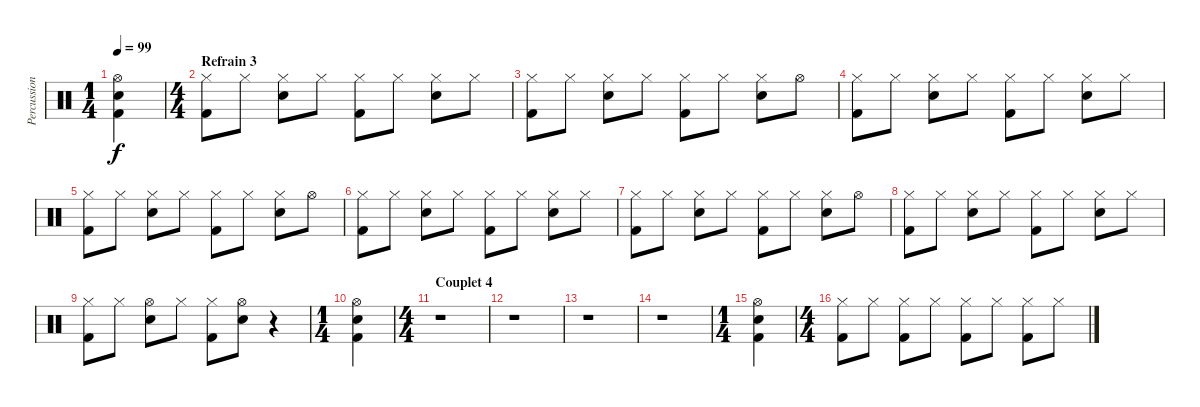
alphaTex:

\track ("Percussions" "Percussion") {instrument percussion}
\staff {score}
\articulation defaults
\ts (1 4)
\tempo 99
\clef neutral
\ks c
("Hi-Hat (open)" "Electric Snare (hit)" "Kick (hit) 2").4{dy f} |
\ts (4 4)
\section ("" "Refrain 3")
("Hi-Hat (closed)" "Kick (hit) 2").8 "Hi-Hat (closed)".8 ("Hi-Hat (closed)" "Electric Snare (hit)").8 "Hi-Hat (closed)".8 ("Hi-Hat (closed)" "Kick (hit) 2").8 "Hi-Hat (closed)".8 ("Hi-Hat (closed)" "Electric Snare (hit)").8 "Hi-Hat (closed)".8 |
("Hi-Hat (closed)" "Kick (hit) 2").8 "Hi-Hat (closed)".8 ("Hi-Hat (closed)" "Electric Snare (hit)").8 "Hi-Hat (closed)".8 ("Hi-Hat (closed)" "Kick (hit) 2").8 "Hi-Hat (closed)".8 ("Hi-Hat (closed)" "Electric Snare (hit)").8 "Hi-Hat (open)".8 |
("Hi-Hat (closed)" "Kick (hit) 2").8 "Hi-Hat (closed)".8 ("Hi-Hat (closed)" "Electric Snare (hit)").8 "Hi-Hat (closed)".8 ("Hi-Hat (closed)" "Kick (hit) 2").8 "Hi-Hat (closed)".8 ("Hi-Hat (closed)" "Electric Snare (hit)").8 "Hi-Hat (closed)".8 |
("Hi-Hat (closed)" "Kick (hit) 2").8 "Hi-Hat (closed)".8 ("Hi-Hat (closed)" "Electric Snare (hit)").8 "Hi-Hat (closed)".8 ("Hi-Hat (closed)" "Kick (hit) 2").8 "Hi-Hat (closed)".8 ("Hi-Hat (closed)" "Electric Snare (hit)").8 "Hi-Hat (open)".8 |
("Hi-Hat (closed)" "Kick (hit) 2").8 "Hi-Hat (closed)".8 ("Hi-Hat (closed)" "Electric Snare (hit)").8 "Hi-Hat (closed)".8 ("Hi-Hat (closed)" "Kick (hit) 2").8 "Hi-Hat (closed)".8 ("Hi-Hat (closed)" "Electric Snare (hit)").8 "Hi-Hat (closed)".8 |
("Hi-Hat (closed)" "Kick (hit) 2").8 "Hi-Hat (closed)".8 ("Hi-Hat (closed)" "Electric Snare (hit)").8 "Hi-Hat (closed)".8 ("Hi-Hat (closed)" "Kick (hit) 2").8 "Hi-Hat (closed)".8 ("Hi-Hat (closed)" "Electric Snare (hit)").8 "Hi-Hat (open)".8 |
("Hi-Hat (closed)" "Kick (hit) 2").8 "Hi-Hat (closed)".8 ("Hi-Hat (closed)" "Electric Snare (hit)").8 "Hi-Hat (closed)".8 ("Hi-Hat (closed)" "Kick (hit) 2").8 "Hi-Hat (closed)".8 ("Hi-Hat (closed)" "Electric Snare (hit)").8 "Hi-Hat (closed)".8 |
("Hi-Hat (closed)" "Kick (hit) 2").8 "Hi-Hat (closed)".8 ("Hi-Hat (open)" "Electric Snare (hit)").8 "Hi-Hat (closed)".8 ("Hi-Hat (closed)" "Kick (hit) 2").8 ("Hi-Hat (open)" "Electric Snare (hit)").8 r.4 |
\ts (1 4)
("Hi-Hat (open)" "Electric Snare (hit)" "Kick (hit) 2").4 |
\ts (4 4)
\section ("" "Couplet 4")
r.1 |
r.1 |
r.1 |
r.1 |
\ts (1 4)
("Hi-Hat (open)" "Electric Snare (hit)" "Kick (hit) 2").4 |
\ts (4 4)
("Hi-Hat (closed)" "Kick (hit) 2").8 "Hi-Hat (closed)".8 ("Hi-Hat (closed)" "Kick (hit) 2").8 "Hi-Hat (closed)".8 ("Hi-Hat (closed)" "Kick (hit) 2").8 "Hi-Hat (closed)".8 ("Hi-Hat (closed)" "Kick (hit) 2").8 "Hi-Hat (closed)".8
